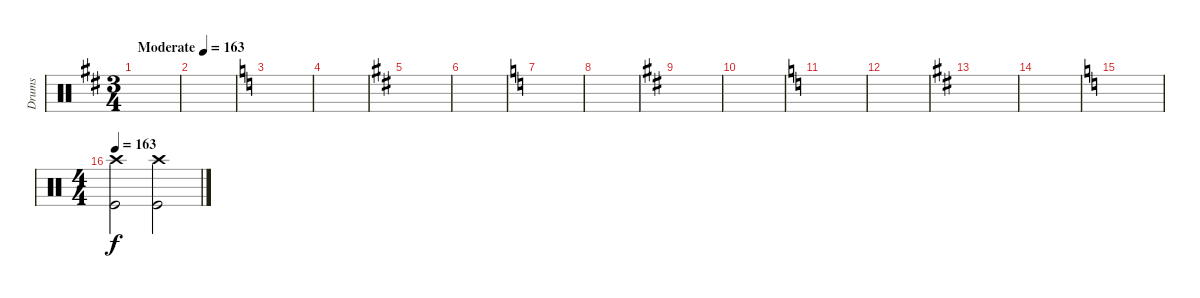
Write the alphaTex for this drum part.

\track ("Drums" "Drums") {instrument percussion}
\staff {score}
\articulation defaults
\ts (3 4)
\tempo (163 "Moderate")
\tempo 121
\tempo (163 "Moderate")
\clef neutral
\ks d
|
|
\ks c
|
|
\ks d
|
|
\ks c
|
|
\ks d
|
|
\ks c
|
|
\ks d
|
|
\ks c
|
\ts (4 4)
\tempo 163
("Crash high (hit)" "Kick (hit)").2 ("Crash high (hit)" "Kick (hit)").2
